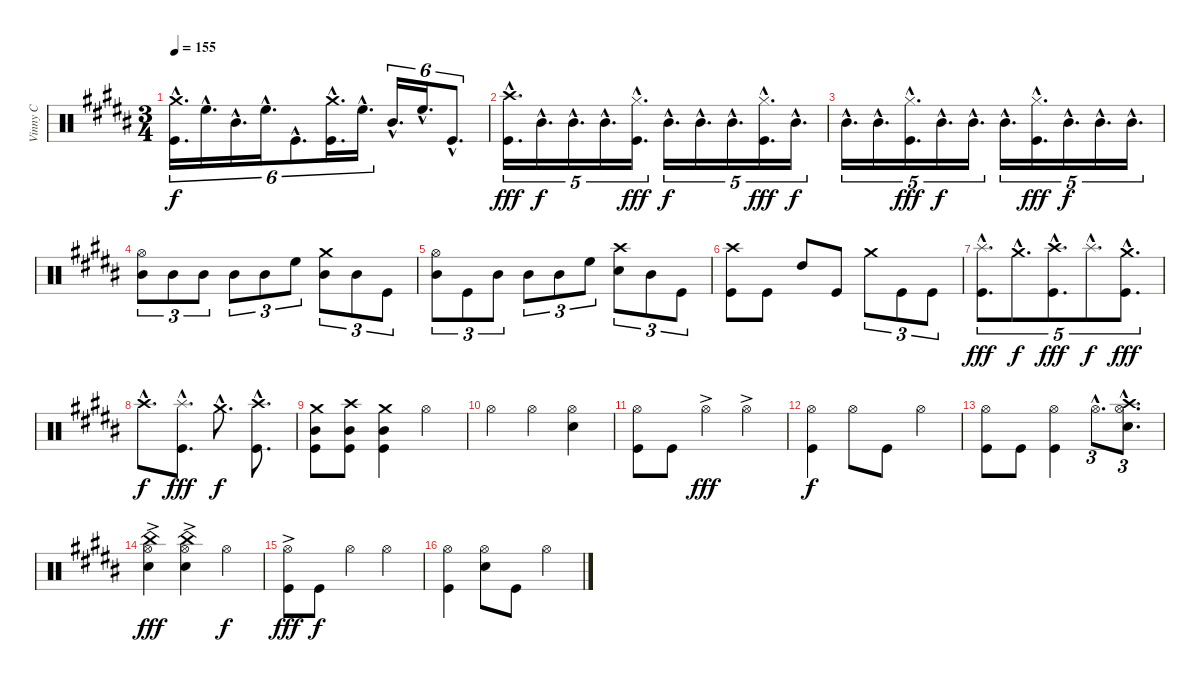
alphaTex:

\track ("Vinny C" "Vinny C") {instrument percussion}
\staff {score}
\articulation defaults
\ts (3 4)
\tempo 155
\clef neutral
\ks b
("Crash medium (hit)"{hac} "Kick (hit)"{hac}).16{d tu (6 4) dy f} "High Floor Tom (hit)"{hac}.16{d tu (6 4)} "Mid Tom (hit)"{hac}.16{d tu (6 4)} "High Floor Tom (hit)"{hac}.16{d tu (6 4)} "Kick (hit)"{hac}.8{d tu (6 4)} ("Crash medium (hit)"{hac} "Kick (hit)"{hac}).16{d tu (6 4)} "High Floor Tom (hit)"{hac}.16{d tu (6 4)} "Mid Tom (hit)"{hac}.16{d tu (6 4)} "High Floor Tom (hit)"{hac}.16{d tu (6 4)} "Kick (hit)"{hac}.8{d tu (6 4)} |
("Crash high (hit)"{hac} "Kick (hit)"{hac}).16{d tu (5 4) dy fff} "Mid Tom (hit)"{hac}.16{d tu (5 4) dy f} "Mid Tom (hit)"{hac}.16{d tu (5 4)} "Mid Tom (hit)"{hac}.16{d tu (5 4)} ("Hi-Hat (closed)"{hac} "Kick (hit)"{hac}).16{d tu (5 4) dy fff} "Mid Tom (hit)"{hac}.16{d tu (5 4) dy f} "Mid Tom (hit)"{hac}.16{d tu (5 4)} "Mid Tom (hit)"{hac}.16{d tu (5 4)} ("Hi-Hat (closed)"{hac} "Kick (hit)"{hac}).16{d tu (5 4) dy fff} "Mid Tom (hit)"{hac}.16{d tu (5 4) dy f} |
"Mid Tom (hit)"{hac}.16{d tu (5 4)} "Mid Tom (hit)"{hac}.16{d tu (5 4)} ("Hi-Hat (closed)"{hac} "Kick (hit)"{hac}).16{d tu (5 4) dy fff} "Mid Tom (hit)"{hac}.16{d tu (5 4) dy f} "Mid Tom (hit)"{hac}.16{d tu (5 4)} "Mid Tom (hit)"{hac}.16{d tu (5 4)} ("Hi-Hat (closed)"{hac} "Kick (hit)"{hac}).16{d tu (5 4) dy fff} "Mid Tom (hit)"{hac}.16{d tu (5 4) dy f} "Mid Tom (hit)"{hac}.16{d tu (5 4)} "Mid Tom (hit)"{hac}.16{d tu (5 4)} |
("Hi-Hat (open)" "Mid Tom (hit)").8{tu (3 2)} "Mid Tom (hit)".8{tu (3 2)} "Mid Tom (hit)".8{tu (3 2)} "Mid Tom (hit)".8{tu (3 2)} "Mid Tom (hit)".8{tu (3 2)} "High Floor Tom (hit)".8{tu (3 2)} ("Crash medium (hit)" "Mid Tom (hit)").8{tu (3 2)} "Mid Tom (hit)".8{tu (3 2)} "Kick (hit)".8{tu (3 2)} |
("Hi-Hat (open)" "Mid Tom (hit)").8{tu (3 2)} "Kick (hit)".8{tu (3 2)} "Mid Tom (hit)".8{tu (3 2)} "Mid Tom (hit)".8{tu (3 2)} "Mid Tom (hit)".8{tu (3 2)} "High Floor Tom (hit)".8{tu (3 2)} ("Crash high (hit)" "Electric Snare (hit)").8{tu (3 2)} "Mid Tom (hit)".8{tu (3 2)} "Kick (hit)".8{tu (3 2)} |
("Crash high (hit)" "Kick (hit)").8 "Kick (hit)".8 "High Tom (hit)".8 "Kick (hit)".8 "Crash medium (hit)".8{tu (3 2)} "Kick (hit)".8{tu (3 2)} "Kick (hit)".8{tu (3 2)} |
("Splash (hit)"{hac} "Kick (hit)"{hac}).8{d tu (5 4) dy fff} "Crash medium (hit)"{hac}.8{d tu (5 4) dy f} ("Crash high (hit)"{hac} "Kick (hit)"{hac}).8{d tu (5 4) dy fff} "Splash (hit)"{hac}.8{d tu (5 4) dy f} ("Crash medium (hit)"{hac} "Kick (hit)"{hac}).8{d tu (5 4) dy fff} |
"Crash high (hit)"{hac}.8{d dy f} ("Splash (hit)"{hac} "Kick (hit)"{hac}).8{d dy fff} "Crash medium (hit)"{hac}.8{d dy f} ("Crash high (hit)"{hac} "Kick (hit)"{hac}).8{d} |
("Crash medium (hit)" "Mid Tom (hit)" "Kick (hit)").8 ("Crash high (hit)" "Mid Tom (hit)" "Kick (hit)").8 ("Crash medium (hit)" "Mid Tom (hit)" "Kick (hit)").4 "Hi-Hat (open)".4 |
"Hi-Hat (open)".4 "Hi-Hat (open)".4 ("Hi-Hat (open)" "Electric Snare (hit)").4 |
("Hi-Hat (open)" "Kick (hit)").8 "Kick (hit)".8 "Hi-Hat (open)"{ac}.4{dy fff} "Hi-Hat (open)"{ac}.4 |
("Hi-Hat (open)" "Kick (hit)").4{dy f} "Hi-Hat (open)".8 "Kick (hit)".8 "Hi-Hat (open)".4 |
("Hi-Hat (open)" "Kick (hit)").8 "Kick (hit)".8 ("Hi-Hat (open)" "Kick (hit)").4 "Hi-Hat (open)"{hac}.8{d tu (3 2)} ("Crash high (hit)"{hac} "Hi-Hat (open)"{hac} "Electric Snare (hit)"{hac}).8{d tu (3 2)} |
("China (hit)"{ac} "Hi-Hat (open)" "Electric Snare (hit)").4{dy fff} ("China (hit)"{ac} "Hi-Hat (open)" "Electric Snare (hit)").4 "Hi-Hat (open)".4{dy f} |
("Hi-Hat (open)" "Kick (hit)"{ac}).8{dy fff} "Kick (hit)".8{dy f} "Hi-Hat (open)".4 "Hi-Hat (open)".4 |
("Hi-Hat (open)" "Kick (hit)").4 ("Hi-Hat (open)" "Electric Snare (hit)").8 "Kick (hit)".8 "Hi-Hat (open)".4
